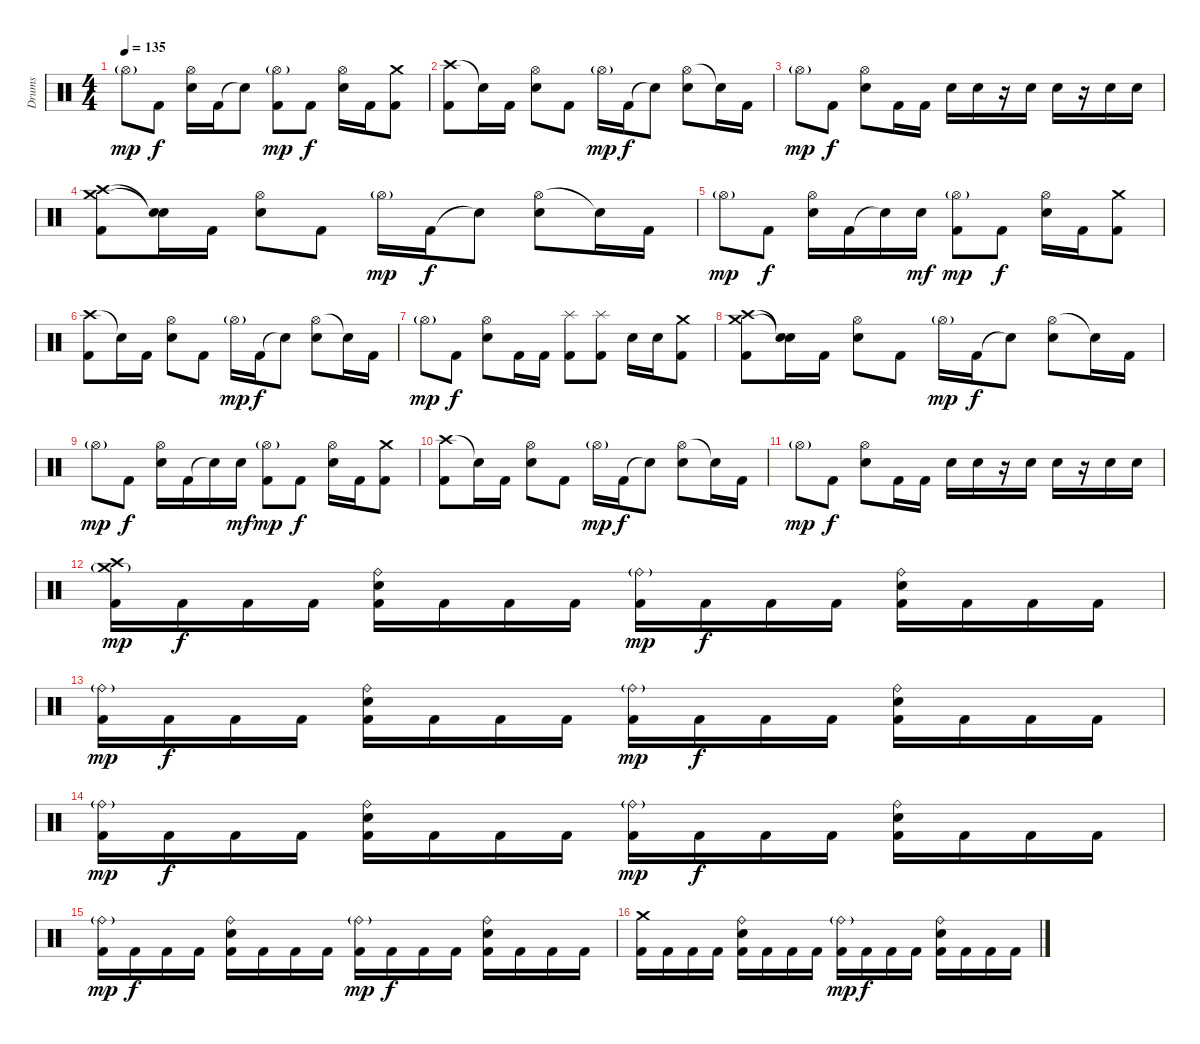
\track ("Drums" "Drums") {instrument percussion}
\staff {score}
\articulation defaults
\ts (4 4)
\tempo 135
\clef neutral
\ks c "Hi-Hat (open)"{g}.8{dy mp} "Kick (hit) 2".8{dy f}
("Hi-Hat (open)" "Electric Snare (hit)").16 "Kick (hit) 2".16 "Snare (hit)"{t}.8 ("Hi-Hat (open)"{g} "Kick (hit) 2").8{dy mp} "Kick (hit) 2".8{dy f} ("Hi-Hat (open)" "Electric Snare (hit)").16 "Kick (hit) 2".16 ("Crash medium (hit)" "Kick (hit) 2").8 |
("Crash high (hit)" "Kick (hit) 2").8 "Snare (hit)"{t}.16 "Kick (hit) 2".16 ("Hi-Hat (open)" "Electric Snare (hit)").8 "Kick (hit) 2".8 "Hi-Hat (open)"{g}.16{dy mp} "Kick (hit) 2".16{dy f} "Snare (hit)"{t}.8 ("Hi-Hat (open)" "Electric Snare (hit)").8 "Snare (hit)"{t}.16 "Kick (hit) 2".16 |
"Hi-Hat (open)"{g}.8{dy mp} "Kick (hit) 2".8{dy f} ("Hi-Hat (open)" "Electric Snare (hit)").8 "Kick (hit) 2".16 "Kick (hit) 2".16 "Electric Snare (hit)".16 "Electric Snare (hit)".16 r.16 "Electric Snare (hit)".16 "Electric Snare (hit)".16 r.16 "Electric Snare (hit)".16 "Electric Snare (hit)".16 |
("Crash high (hit)" "Crash medium (hit)" "Kick (hit) 2").8 ("Snare (hit)"{t} "Snare (hit)"{t}).16 "Kick (hit) 2".16 ("Hi-Hat (open)" "Electric Snare (hit)").8 "Kick (hit) 2".8 "Hi-Hat (open)"{g}.16{dy mp} "Kick (hit) 2".16{dy f} "Snare (hit)"{t}.8 ("Hi-Hat (open)" "Electric Snare (hit)").8 "Snare (hit)"{t}.16 "Kick (hit) 2".16 |
"Hi-Hat (open)"{g}.8{dy mp} "Kick (hit) 2".8{dy f} ("Hi-Hat (open)" "Electric Snare (hit)").16 "Kick (hit) 2".16 "Snare (hit)"{t}.16 "Electric Snare (hit)".16{dy mf} ("Hi-Hat (open)"{g} "Kick (hit) 2").8{dy mp} "Kick (hit) 2".8{dy f} ("Hi-Hat (open)" "Electric Snare (hit)").16 "Kick (hit) 2".16 ("Crash medium (hit)" "Kick (hit) 2").8 |
("Crash high (hit)" "Kick (hit) 2").8 "Snare (hit)"{t}.16 "Kick (hit) 2".16 ("Hi-Hat (open)" "Electric Snare (hit)").8 "Kick (hit) 2".8 "Hi-Hat (open)"{g}.16{dy mp} "Kick (hit) 2".16{dy f} "Snare (hit)"{t}.8 ("Hi-Hat (open)" "Electric Snare (hit)").8 "Snare (hit)"{t}.16 "Kick (hit) 2".16 |
"Hi-Hat (open)"{g}.8{dy mp} "Kick (hit) 2".8{dy f} ("Hi-Hat (open)" "Electric Snare (hit)").8 "Kick (hit) 2".16 "Kick (hit) 2".16 ("Splash (hit)" "Kick (hit) 2").8 ("Splash (hit)" "Kick (hit) 2").8 "Electric Snare (hit)".16 "Electric Snare (hit)".16 ("Crash medium (hit)" "Kick (hit) 2").8 |
("Crash high (hit)" "Crash medium (hit)" "Kick (hit) 2").8 ("Snare (hit)"{t} "Snare (hit)"{t}).16 "Kick (hit) 2".16 ("Hi-Hat (open)" "Electric Snare (hit)").8 "Kick (hit) 2".8 "Hi-Hat (open)"{g}.16{dy mp} "Kick (hit) 2".16{dy f} "Snare (hit)"{t}.8 ("Hi-Hat (open)" "Electric Snare (hit)").8 "Snare (hit)"{t}.16 "Kick (hit) 2".16 |
"Hi-Hat (open)"{g}.8{dy mp} "Kick (hit) 2".8{dy f} ("Hi-Hat (open)" "Electric Snare (hit)").16 "Kick (hit) 2".16 "Snare (hit)"{t}.16 "Electric Snare (hit)".16{dy mf} ("Hi-Hat (open)"{g} "Kick (hit) 2").8{dy mp} "Kick (hit) 2".8{dy f} ("Hi-Hat (open)" "Electric Snare (hit)").16 "Kick (hit) 2".16 ("Crash medium (hit)" "Kick (hit) 2").8 |
("Crash high (hit)" "Kick (hit) 2").8 "Snare (hit)"{t}.16 "Kick (hit) 2".16 ("Hi-Hat (open)" "Electric Snare (hit)").8 "Kick (hit) 2".8 "Hi-Hat (open)"{g}.16{dy mp} "Kick (hit) 2".16{dy f} "Snare (hit)"{t}.8 ("Hi-Hat (open)" "Electric Snare (hit)").8 "Snare (hit)"{t}.16 "Kick (hit) 2".16 |
"Hi-Hat (open)"{g}.8{dy mp} "Kick (hit) 2".8{dy f} ("Hi-Hat (open)" "Electric Snare (hit)").8 "Kick (hit) 2".16 "Kick (hit) 2".16 "Electric Snare (hit)".16 "Electric Snare (hit)".16 r.16 "Electric Snare (hit)".16 "Electric Snare (hit)".16 r.16 "Electric Snare (hit)".16 "Electric Snare (hit)".16 |
("Crash high (hit)" "Crash medium (hit)"{g} "Kick (hit) 2").16{dy mp} "Kick (hit) 2".16{dy f} "Kick (hit) 2".16 "Kick (hit) 2".16 ("Ride (bell)" "Electric Snare (hit)" "Kick (hit) 2").16 "Kick (hit) 2".16 "Kick (hit) 2".16 "Kick (hit) 2".16 ("Ride (bell)"{g} "Kick (hit) 2").16{dy mp} "Kick (hit) 2".16{dy f} "Kick (hit) 2".16 "Kick (hit) 2".16 ("Ride (bell)" "Electric Snare (hit)" "Kick (hit) 2").16 "Kick (hit) 2".16 "Kick (hit) 2".16 "Kick (hit) 2".16 |
("Ride (bell)"{g} "Kick (hit) 2").16{dy mp} "Kick (hit) 2".16{dy f} "Kick (hit) 2".16 "Kick (hit) 2".16 ("Ride (bell)" "Electric Snare (hit)" "Kick (hit) 2").16 "Kick (hit) 2".16 "Kick (hit) 2".16 "Kick (hit) 2".16 ("Ride (bell)"{g} "Kick (hit) 2").16{dy mp} "Kick (hit) 2".16{dy f} "Kick (hit) 2".16 "Kick (hit) 2".16 ("Ride (bell)" "Electric Snare (hit)" "Kick (hit) 2").16 "Kick (hit) 2".16 "Kick (hit) 2".16 "Kick (hit) 2".16 |
("Ride (bell)"{g} "Kick (hit) 2").16{dy mp} "Kick (hit) 2".16{dy f} "Kick (hit) 2".16 "Kick (hit) 2".16 ("Ride (bell)" "Electric Snare (hit)" "Kick (hit) 2").16 "Kick (hit) 2".16 "Kick (hit) 2".16 "Kick (hit) 2".16 ("Ride (bell)"{g} "Kick (hit) 2").16{dy mp} "Kick (hit) 2".16{dy f} "Kick (hit) 2".16 "Kick (hit) 2".16 ("Ride (bell)" "Electric Snare (hit)" "Kick (hit) 2").16 "Kick (hit) 2".16 "Kick (hit) 2".16 "Kick (hit) 2".16 |
("Ride (bell)"{g} "Kick (hit) 2").16{dy mp} "Kick (hit) 2".16{dy f} "Kick (hit) 2".16 "Kick (hit) 2".16 ("Ride (bell)" "Electric Snare (hit)" "Kick (hit) 2").16 "Kick (hit) 2".16 "Kick (hit) 2".16 "Kick (hit) 2".16 ("Ride (bell)"{g} "Kick (hit) 2").16{dy mp} "Kick (hit) 2".16{dy f} "Kick (hit) 2".16 "Kick (hit) 2".16 ("Ride (bell)" "Electric Snare (hit)" "Kick (hit) 2").16 "Kick (hit) 2".16 "Kick (hit) 2".16 "Kick (hit) 2".16 |
("Crash medium (hit)" "Kick (hit) 2").16 "Kick (hit) 2".16 "Kick (hit) 2".16 "Kick (hit) 2".16 ("Ride (bell)" "Electric Snare (hit)" "Kick (hit) 2").16 "Kick (hit) 2".16 "Kick (hit) 2".16 "Kick (hit) 2".16 ("Ride (bell)"{g} "Kick (hit) 2").16{dy mp} "Kick (hit) 2".16{dy f} "Kick (hit) 2".16 "Kick (hit) 2".16 ("Ride (bell)" "Electric Snare (hit)" "Kick (hit) 2").16 "Kick (hit) 2".16 "Kick (hit) 2".16 "Kick (hit) 2".16
